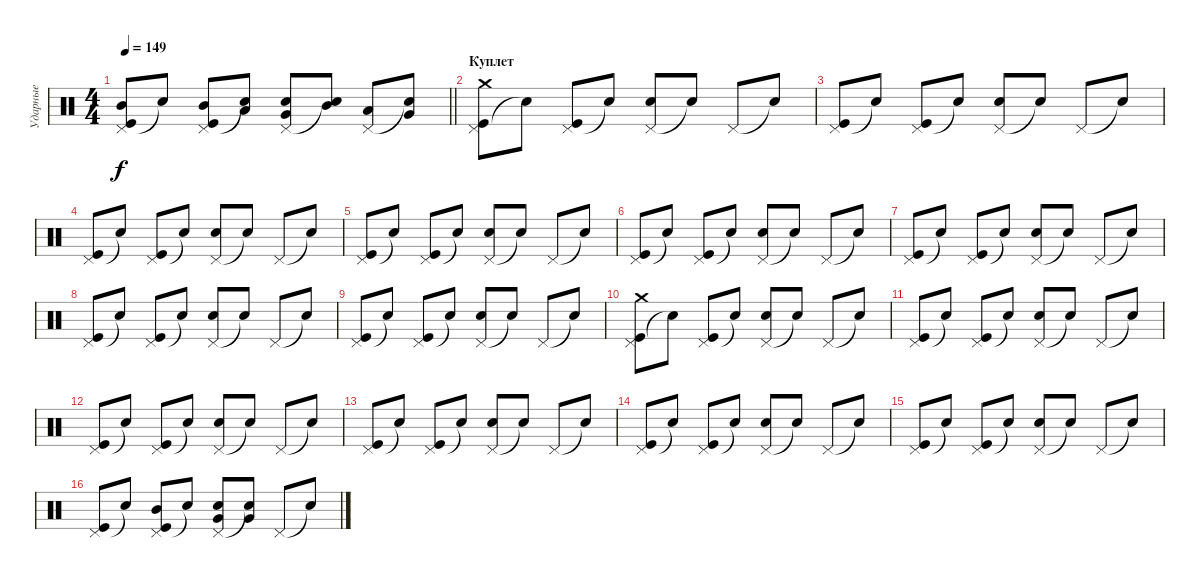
\track ("Ударные" "Ударные") {instrument percussion}
\staff {score}
\articulation defaults
\ts (4 4)
\tempo 149
\clef neutral
\barLineRight lightlight
\ks c
("Pedal Hi-Hat (hit)" "Kick (hit)" "Mid Tom (hit)").8{dy f} "Snare (hit)"{t}.8 ("Pedal Hi-Hat (hit)" "Kick (hit)" "Mid Tom (hit)").8 ("Snare (hit)"{t} "Low Floor Tom (hit)").8 ("Pedal Hi-Hat (hit)" "Snare (hit) 2" "Very Low Tom (hit)").8 ("Snare (hit)"{t} "Mid Tom (hit)").8 ("Pedal Hi-Hat (hit)" "Low Tom (hit)").8 ("Snare (hit)"{t} "Very Low Tom (hit)").8 |
\section ("" "Куплет")
("Pedal Hi-Hat (hit)" "Kick (hit)" "Crash medium (hit)").8 "Snare (hit)"{t}.8 ("Pedal Hi-Hat (hit)" "Kick (hit)").8 "Snare (hit)"{t}.8 ("Pedal Hi-Hat (hit)" "Snare (hit) 2").8 "Snare (hit)"{t}.8 "Pedal Hi-Hat (hit)".8 "Snare (hit)"{t}.8 |
("Pedal Hi-Hat (hit)" "Kick (hit)").8 "Snare (hit)"{t}.8 ("Pedal Hi-Hat (hit)" "Kick (hit)").8 "Snare (hit)"{t}.8 ("Pedal Hi-Hat (hit)" "Snare (hit) 2").8 "Snare (hit)"{t}.8 "Pedal Hi-Hat (hit)".8 "Snare (hit)"{t}.8 |
("Pedal Hi-Hat (hit)" "Kick (hit)").8 "Snare (hit)"{t}.8 ("Pedal Hi-Hat (hit)" "Kick (hit)").8 "Snare (hit)"{t}.8 ("Pedal Hi-Hat (hit)" "Snare (hit) 2").8 "Snare (hit)"{t}.8 "Pedal Hi-Hat (hit)".8 "Snare (hit)"{t}.8 |
("Pedal Hi-Hat (hit)" "Kick (hit)").8 "Snare (hit)"{t}.8 ("Pedal Hi-Hat (hit)" "Kick (hit)").8 "Snare (hit)"{t}.8 ("Pedal Hi-Hat (hit)" "Snare (hit) 2").8 "Snare (hit)"{t}.8 "Pedal Hi-Hat (hit)".8 "Snare (hit)"{t}.8 |
("Pedal Hi-Hat (hit)" "Kick (hit)").8 "Snare (hit)"{t}.8 ("Pedal Hi-Hat (hit)" "Kick (hit)").8 "Snare (hit)"{t}.8 ("Pedal Hi-Hat (hit)" "Snare (hit) 2").8 "Snare (hit)"{t}.8 "Pedal Hi-Hat (hit)".8 "Snare (hit)"{t}.8 |
("Pedal Hi-Hat (hit)" "Kick (hit)").8 "Snare (hit)"{t}.8 ("Pedal Hi-Hat (hit)" "Kick (hit)").8 "Snare (hit)"{t}.8 ("Pedal Hi-Hat (hit)" "Snare (hit) 2").8 "Snare (hit)"{t}.8 "Pedal Hi-Hat (hit)".8 "Snare (hit)"{t}.8 |
("Pedal Hi-Hat (hit)" "Kick (hit)").8 "Snare (hit)"{t}.8 ("Pedal Hi-Hat (hit)" "Kick (hit)").8 "Snare (hit)"{t}.8 ("Pedal Hi-Hat (hit)" "Snare (hit) 2").8 "Snare (hit)"{t}.8 "Pedal Hi-Hat (hit)".8 "Snare (hit)"{t}.8 |
("Pedal Hi-Hat (hit)" "Kick (hit)").8 "Snare (hit)"{t}.8 ("Pedal Hi-Hat (hit)" "Kick (hit)").8 "Snare (hit)"{t}.8 ("Pedal Hi-Hat (hit)" "Snare (hit) 2").8 "Snare (hit)"{t}.8 "Pedal Hi-Hat (hit)".8 "Snare (hit)"{t}.8 |
("Pedal Hi-Hat (hit)" "Kick (hit)" "Crash medium (hit)").8 "Snare (hit)"{t}.8 ("Pedal Hi-Hat (hit)" "Kick (hit)").8 "Snare (hit)"{t}.8 ("Pedal Hi-Hat (hit)" "Snare (hit) 2").8 "Snare (hit)"{t}.8 "Pedal Hi-Hat (hit)".8 "Snare (hit)"{t}.8 |
("Pedal Hi-Hat (hit)" "Kick (hit)").8 "Snare (hit)"{t}.8 ("Pedal Hi-Hat (hit)" "Kick (hit)").8 "Snare (hit)"{t}.8 ("Pedal Hi-Hat (hit)" "Snare (hit) 2").8 "Snare (hit)"{t}.8 "Pedal Hi-Hat (hit)".8 "Snare (hit)"{t}.8 |
("Pedal Hi-Hat (hit)" "Kick (hit)").8 "Snare (hit)"{t}.8 ("Pedal Hi-Hat (hit)" "Kick (hit)").8 "Snare (hit)"{t}.8 ("Pedal Hi-Hat (hit)" "Snare (hit) 2").8 "Snare (hit)"{t}.8 "Pedal Hi-Hat (hit)".8 "Snare (hit)"{t}.8 |
("Pedal Hi-Hat (hit)" "Kick (hit)").8 "Snare (hit)"{t}.8 ("Pedal Hi-Hat (hit)" "Kick (hit)").8 "Snare (hit)"{t}.8 ("Pedal Hi-Hat (hit)" "Snare (hit) 2").8 "Snare (hit)"{t}.8 "Pedal Hi-Hat (hit)".8 "Snare (hit)"{t}.8 |
("Pedal Hi-Hat (hit)" "Kick (hit)").8 "Snare (hit)"{t}.8 ("Pedal Hi-Hat (hit)" "Kick (hit)").8 "Snare (hit)"{t}.8 ("Pedal Hi-Hat (hit)" "Snare (hit) 2").8 "Snare (hit)"{t}.8 "Pedal Hi-Hat (hit)".8 "Snare (hit)"{t}.8 |
("Pedal Hi-Hat (hit)" "Kick (hit)").8 "Snare (hit)"{t}.8 ("Pedal Hi-Hat (hit)" "Kick (hit)").8 "Snare (hit)"{t}.8 ("Pedal Hi-Hat (hit)" "Snare (hit) 2").8 "Snare (hit)"{t}.8 "Pedal Hi-Hat (hit)".8 "Snare (hit)"{t}.8 |
("Pedal Hi-Hat (hit)" "Kick (hit)").8 "Snare (hit)"{t}.8 ("Pedal Hi-Hat (hit)" "Kick (hit)" "Mid Tom (hit)").8 "Snare (hit)"{t}.8 ("Pedal Hi-Hat (hit)" "Snare (hit) 2" "Very Low Tom (hit)").8 ("Snare (hit)"{t} "Very Low Tom (hit)").8 "Pedal Hi-Hat (hit)".8 "Snare (hit)"{t}.8
